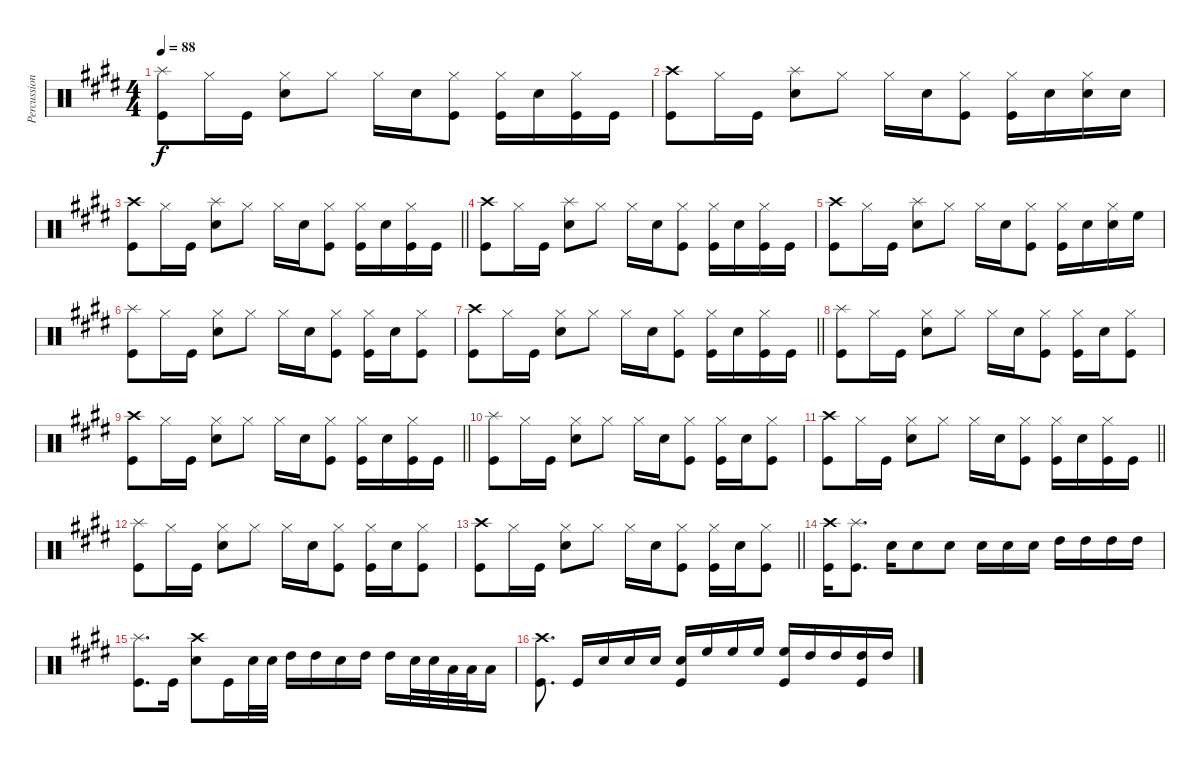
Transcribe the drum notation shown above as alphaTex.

\track ("Percussion" "Percussion") {instrument percussion}
\staff {score}
\articulation defaults
\ts (4 4)
\tempo 88
\clef neutral
\ks e
("Splash (hit)" "Kick (hit)").8{dy f} "Hi-Hat (closed)".16 "Kick (hit)".16 ("Hi-Hat (closed)" "Snare (hit) 2").8 "Hi-Hat (closed)".8 "Hi-Hat (closed)".16 "Snare (hit) 2".16 ("Hi-Hat (closed)" "Kick (hit)").8 ("Hi-Hat (closed)" "Kick (hit)").16 "Snare (hit) 2".16 ("Hi-Hat (closed)" "Kick (hit)").16 "Kick (hit)".16 |
("Crash high (hit)" "Kick (hit)").8 "Hi-Hat (closed)".16 "Kick (hit)".16 ("Splash (hit)" "Snare (hit) 2").8 "Hi-Hat (closed)".8 "Hi-Hat (closed)".16 "Snare (hit) 2".16 ("Hi-Hat (closed)" "Kick (hit)").8 ("Hi-Hat (closed)" "Kick (hit)").16 "Snare (hit) 2".16 ("Hi-Hat (closed)" "Snare (hit) 2").16 "Snare (hit) 2".16 |
\barLineRight lightlight
("Crash high (hit)" "Kick (hit)").8 "Hi-Hat (closed)".16 "Kick (hit)".16 ("Splash (hit)" "Snare (hit) 2").8 "Hi-Hat (closed)".8 "Hi-Hat (closed)".16 "Snare (hit) 2".16 ("Hi-Hat (closed)" "Kick (hit)").8 ("Hi-Hat (closed)" "Kick (hit)").16 "Snare (hit) 2".16 ("Hi-Hat (closed)" "Kick (hit)").16 "Kick (hit)".16 |
("Crash high (hit)" "Kick (hit)").8 "Hi-Hat (closed)".16 "Kick (hit)".16 ("Splash (hit)" "Snare (hit) 2").8 "Hi-Hat (closed)".8 "Hi-Hat (closed)".16 "Snare (hit) 2".16 ("Hi-Hat (closed)" "Kick (hit)").8 ("Hi-Hat (closed)" "Kick (hit)").16 "Snare (hit) 2".16 ("Hi-Hat (closed)" "Kick (hit)").16 "Kick (hit)".16 |
("Crash high (hit)" "Kick (hit)").8 "Hi-Hat (closed)".16 "Kick (hit)".16 ("Splash (hit)" "Snare (hit) 2").8 "Hi-Hat (closed)".8 "Hi-Hat (closed)".16 "Snare (hit) 2".16 ("Hi-Hat (closed)" "Kick (hit)").8 ("Hi-Hat (closed)" "Kick (hit)").16 "Snare (hit) 2".16 ("Hi-Hat (closed)" "Snare (hit) 2").16 "High Floor Tom (hit)".16 |
("Splash (hit)" "Kick (hit)").8 "Hi-Hat (closed)".16 "Kick (hit)".16 ("Hi-Hat (closed)" "Snare (hit) 2").8 "Hi-Hat (closed)".8 "Hi-Hat (closed)".16 "Snare (hit) 2".16 ("Hi-Hat (closed)" "Kick (hit)").8 ("Hi-Hat (closed)" "Kick (hit)").16 "Snare (hit) 2".16 ("Hi-Hat (closed)" "Kick (hit)").8 |
\barLineRight lightlight
("Crash high (hit)" "Kick (hit)").8 "Hi-Hat (closed)".16 "Kick (hit)".16 ("Hi-Hat (closed)" "Snare (hit) 2").8 "Hi-Hat (closed)".8 "Hi-Hat (closed)".16 "Snare (hit) 2".16 ("Hi-Hat (closed)" "Kick (hit)").8 ("Hi-Hat (closed)" "Kick (hit)").16 "Snare (hit) 2".16 ("Hi-Hat (closed)" "Kick (hit)").16 "Kick (hit)".16 |
("Splash (hit)" "Kick (hit)").8 "Hi-Hat (closed)".16 "Kick (hit)".16 ("Hi-Hat (closed)" "Snare (hit) 2").8 "Hi-Hat (closed)".8 "Hi-Hat (closed)".16 "Snare (hit) 2".16 ("Hi-Hat (closed)" "Kick (hit)").8 ("Hi-Hat (closed)" "Kick (hit)").16 "Snare (hit) 2".16 ("Hi-Hat (closed)" "Kick (hit)").8 |
\barLineRight lightlight
("Crash high (hit)" "Kick (hit)").8 "Hi-Hat (closed)".16 "Kick (hit)".16 ("Hi-Hat (closed)" "Snare (hit) 2").8 "Hi-Hat (closed)".8 "Hi-Hat (closed)".16 "Snare (hit) 2".16 ("Hi-Hat (closed)" "Kick (hit)").8 ("Hi-Hat (closed)" "Kick (hit)").16 "Snare (hit) 2".16 ("Hi-Hat (closed)" "Kick (hit)").16 "Kick (hit)".16 |
("Splash (hit)" "Kick (hit)").8 "Hi-Hat (closed)".16 "Kick (hit)".16 ("Hi-Hat (closed)" "Snare (hit) 2").8 "Hi-Hat (closed)".8 "Hi-Hat (closed)".16 "Snare (hit) 2".16 ("Hi-Hat (closed)" "Kick (hit)").8 ("Hi-Hat (closed)" "Kick (hit)").16 "Snare (hit) 2".16 ("Hi-Hat (closed)" "Kick (hit)").8 |
\barLineRight lightlight
("Crash high (hit)" "Kick (hit)").8 "Hi-Hat (closed)".16 "Kick (hit)".16 ("Hi-Hat (closed)" "Snare (hit) 2").8 "Hi-Hat (closed)".8 "Hi-Hat (closed)".16 "Snare (hit) 2".16 ("Hi-Hat (closed)" "Kick (hit)").8 ("Hi-Hat (closed)" "Kick (hit)").16 "Snare (hit) 2".16 ("Hi-Hat (closed)" "Kick (hit)").16 "Kick (hit)".16 |
("Splash (hit)" "Kick (hit)").8 "Hi-Hat (closed)".16 "Kick (hit)".16 ("Hi-Hat (closed)" "Snare (hit) 2").8 "Hi-Hat (closed)".8 "Hi-Hat (closed)".16 "Snare (hit) 2".16 ("Hi-Hat (closed)" "Kick (hit)").8 ("Hi-Hat (closed)" "Kick (hit)").16 "Snare (hit) 2".16 ("Hi-Hat (closed)" "Kick (hit)").8 |
\barLineRight lightlight
("Crash high (hit)" "Kick (hit)").8 "Hi-Hat (closed)".16 "Kick (hit)".16 ("Hi-Hat (closed)" "Snare (hit) 2").8 "Hi-Hat (closed)".8 "Hi-Hat (closed)".16 "Snare (hit) 2".16 ("Hi-Hat (closed)" "Kick (hit)").8 ("Hi-Hat (closed)" "Kick (hit)").16 "Snare (hit) 2".16 ("Hi-Hat (closed)" "Kick (hit)").8 |
("Crash high (hit)" "Kick (hit)").16 ("Splash (hit)" "Kick (hit)").8{d} "Snare (hit) 2".16 "Snare (hit) 2".8 "Snare (hit) 2".8 "Snare (hit) 2".16 "Snare (hit) 2".16 "Snare (hit) 2".16 "High Tom (hit)".16 "High Tom (hit)".16 "High Tom (hit)".16 "High Tom (hit)".16 |
("Splash (hit)" "Kick (hit)").8{d} "Kick (hit)".16 ("Crash high (hit)" "Snare (hit) 2").8 "Kick (hit)".16 "Snare (hit) 2".32 "Snare (hit) 2".32 "High Tom (hit)".16 "High Tom (hit)".16 "Snare (hit) 2".16 "High Tom (hit)".16 "High Tom (hit)".16 "Snare (hit) 2".32 "Snare (hit) 2".32 "Low Tom (hit)".32 "Low Tom (hit)".32 "Low Tom (hit)".16 |
("Crash high (hit)" "Kick (hit)").8{d beam split} "Kick (hit)".16{beam merge} "Snare (hit) 2".16 "Snare (hit) 2".16 "Snare (hit) 2".16{beam split} ("Snare (hit) 2" "Kick (hit)").16{beam merge} "High Floor Tom (hit)".16 "High Floor Tom (hit)".16 "High Floor Tom (hit)".16{beam split} ("High Floor Tom (hit)" "Kick (hit)").16{beam merge} "High Tom (hit)".16 "High Tom (hit)".16 ("High Tom (hit)" "Kick (hit)").16 "High Tom (hit)".16
